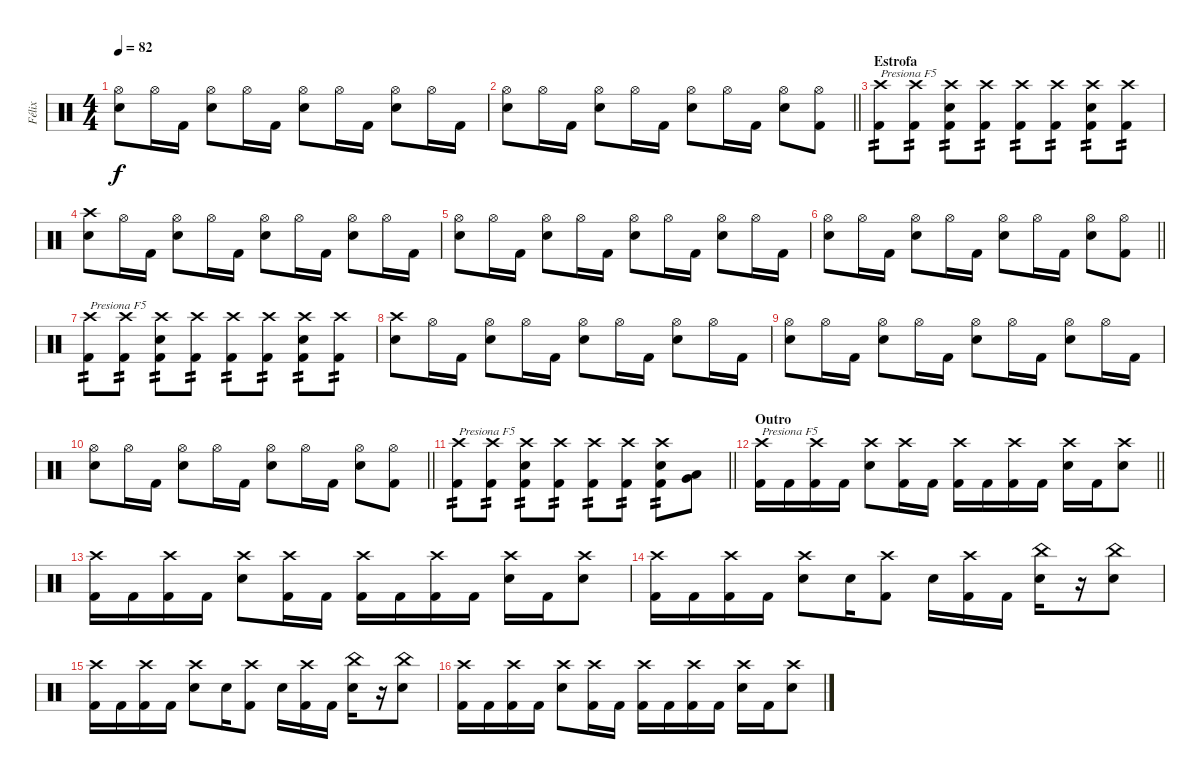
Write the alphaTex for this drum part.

\track ("Félix" "Félix") {instrument percussion}
\staff {score}
\articulation defaults
\ts (4 4)
\tempo 82
\clef neutral
\ks c
("Hi-Hat (open)" "Snare (hit) 2").8{dy f} "Hi-Hat (open)".16 "Kick (hit) 2".16 ("Hi-Hat (open)" "Snare (hit) 2").8 "Hi-Hat (open)".16 "Kick (hit) 2".16 ("Hi-Hat (open)" "Snare (hit) 2").8 "Hi-Hat (open)".16 "Kick (hit) 2".16 ("Hi-Hat (open)" "Snare (hit) 2").8 "Hi-Hat (open)".16 "Kick (hit) 2".16 |
\barLineRight lightlight
("Hi-Hat (open)" "Snare (hit) 2").8 "Hi-Hat (open)".16 "Kick (hit) 2".16 ("Hi-Hat (open)" "Snare (hit) 2").8 "Hi-Hat (open)".16 "Kick (hit) 2".16 ("Hi-Hat (open)" "Snare (hit) 2").8 "Hi-Hat (open)".16 "Kick (hit) 2".16 ("Hi-Hat (open)" "Snare (hit) 2").8 ("Hi-Hat (open)" "Kick (hit) 2").8 |
\section ("" "Estrofa")
("Crash high (hit)" "Kick (hit) 2").8{txt "Presiona F5" tp 2} ("Crash high (hit)" "Kick (hit) 2").8{tp 2} ("Crash high (hit)" "Snare (hit) 2" "Kick (hit) 2").8{tp 2} ("Crash high (hit)" "Kick (hit) 2").8{tp 2} ("Crash high (hit)" "Kick (hit) 2").8{tp 2} ("Crash high (hit)" "Kick (hit) 2").8{tp 2} ("Crash high (hit)" "Snare (hit) 2" "Kick (hit) 2").8{tp 2} ("Crash high (hit)" "Kick (hit) 2").8{tp 2} |
("Crash high (hit)" "Snare (hit) 2").8 "Hi-Hat (open)".16 "Kick (hit) 2".16 ("Hi-Hat (open)" "Snare (hit) 2").8 "Hi-Hat (open)".16 "Kick (hit) 2".16 ("Hi-Hat (open)" "Snare (hit) 2").8 "Hi-Hat (open)".16 "Kick (hit) 2".16 ("Hi-Hat (open)" "Snare (hit) 2").8 "Hi-Hat (open)".16 "Kick (hit) 2".16 |
("Hi-Hat (open)" "Snare (hit) 2").8 "Hi-Hat (open)".16 "Kick (hit) 2".16 ("Hi-Hat (open)" "Snare (hit) 2").8 "Hi-Hat (open)".16 "Kick (hit) 2".16 ("Hi-Hat (open)" "Snare (hit) 2").8 "Hi-Hat (open)".16 "Kick (hit) 2".16 ("Hi-Hat (open)" "Snare (hit) 2").8 "Hi-Hat (open)".16 "Kick (hit) 2".16 |
\barLineRight lightlight
("Hi-Hat (open)" "Snare (hit) 2").8 "Hi-Hat (open)".16 "Kick (hit) 2".16 ("Hi-Hat (open)" "Snare (hit) 2").8 "Hi-Hat (open)".16 "Kick (hit) 2".16 ("Hi-Hat (open)" "Snare (hit) 2").8 "Hi-Hat (open)".16 "Kick (hit) 2".16 ("Hi-Hat (open)" "Snare (hit) 2").8 ("Hi-Hat (open)" "Kick (hit) 2").8 |
("Crash high (hit)" "Kick (hit) 2").8{txt "Presiona F5" tp 2} ("Crash high (hit)" "Kick (hit) 2").8{tp 2} ("Crash high (hit)" "Snare (hit) 2" "Kick (hit) 2").8{tp 2} ("Crash high (hit)" "Kick (hit) 2").8{tp 2} ("Crash high (hit)" "Kick (hit) 2").8{tp 2} ("Crash high (hit)" "Kick (hit) 2").8{tp 2} ("Crash high (hit)" "Snare (hit) 2" "Kick (hit) 2").8{tp 2} ("Crash high (hit)" "Kick (hit) 2").8{tp 2} |
("Crash high (hit)" "Snare (hit) 2").8 "Hi-Hat (open)".16 "Kick (hit) 2".16 ("Hi-Hat (open)" "Snare (hit) 2").8 "Hi-Hat (open)".16 "Kick (hit) 2".16 ("Hi-Hat (open)" "Snare (hit) 2").8 "Hi-Hat (open)".16 "Kick (hit) 2".16 ("Hi-Hat (open)" "Snare (hit) 2").8 "Hi-Hat (open)".16 "Kick (hit) 2".16 |
("Hi-Hat (open)" "Snare (hit) 2").8 "Hi-Hat (open)".16 "Kick (hit) 2".16 ("Hi-Hat (open)" "Snare (hit) 2").8 "Hi-Hat (open)".16 "Kick (hit) 2".16 ("Hi-Hat (open)" "Snare (hit) 2").8 "Hi-Hat (open)".16 "Kick (hit) 2".16 ("Hi-Hat (open)" "Snare (hit) 2").8 "Hi-Hat (open)".16 "Kick (hit) 2".16 |
\barLineRight lightlight
("Hi-Hat (open)" "Snare (hit) 2").8 "Hi-Hat (open)".16 "Kick (hit) 2".16 ("Hi-Hat (open)" "Snare (hit) 2").8 "Hi-Hat (open)".16 "Kick (hit) 2".16 ("Hi-Hat (open)" "Snare (hit) 2").8 "Hi-Hat (open)".16 "Kick (hit) 2".16 ("Hi-Hat (open)" "Snare (hit) 2").8 ("Hi-Hat (open)" "Kick (hit) 2").8 |
\barLineRight lightlight
("Crash high (hit)" "Kick (hit) 2").8{txt "Presiona F5" tp 2} ("Crash high (hit)" "Kick (hit) 2").8{tp 2} ("Crash high (hit)" "Snare (hit) 2" "Kick (hit) 2").8{tp 2} ("Crash high (hit)" "Kick (hit) 2").8{tp 2} ("Crash high (hit)" "Kick (hit) 2").8{tp 2} ("Crash high (hit)" "Kick (hit) 2").8{tp 2} ("Crash high (hit)" "Snare (hit) 2" "Kick (hit) 2").8{tp 2} ("Very Low Tom (hit)" "Low Floor Tom (hit)").8 |
\section ("" "Outro")
\barLineRight lightlight
("Crash high (hit)" "Kick (hit) 2").16{txt "Presiona F5"} "Kick (hit) 2".16 ("Crash high (hit)" "Kick (hit) 2").16 "Kick (hit) 2".16 ("Crash high (hit)" "Snare (hit) 2").8 ("Crash high (hit)" "Kick (hit) 2").16 "Kick (hit) 2".16 ("Crash high (hit)" "Kick (hit) 2").16 "Kick (hit) 2".16 ("Crash high (hit)" "Kick (hit) 2").16 "Kick (hit) 2".16 ("Crash high (hit)" "Snare (hit) 2").16 "Kick (hit) 2".16 ("Crash high (hit)" "Snare (hit) 2").8 |
("Crash high (hit)" "Kick (hit) 2").16 "Kick (hit) 2".16 ("Crash high (hit)" "Kick (hit) 2").16 "Kick (hit) 2".16 ("Crash high (hit)" "Snare (hit) 2").8 ("Crash high (hit)" "Kick (hit) 2").16 "Kick (hit) 2".16 ("Crash high (hit)" "Kick (hit) 2").16 "Kick (hit) 2".16 ("Crash high (hit)" "Kick (hit) 2").16 "Kick (hit) 2".16 ("Crash high (hit)" "Snare (hit) 2").16 "Kick (hit) 2".16 ("Crash high (hit)" "Snare (hit) 2").8 |
("Crash high (hit)" "Kick (hit) 2").16 "Kick (hit) 2".16 ("Crash high (hit)" "Kick (hit) 2").16 "Kick (hit) 2".16 ("Crash high (hit)" "Snare (hit) 2").8 "Snare (hit) 2".16 ("Crash high (hit)" "Kick (hit) 2").8 "Snare (hit) 2".16 ("Crash high (hit)" "Kick (hit) 2").16 "Kick (hit) 2".16 ("China (hit)" "Snare (hit) 2").16 r.16 ("China (hit)" "Snare (hit) 2").8 |
("Crash high (hit)" "Kick (hit) 2").16 "Kick (hit) 2".16 ("Crash high (hit)" "Kick (hit) 2").16 "Kick (hit) 2".16 ("Crash high (hit)" "Snare (hit) 2").8 "Snare (hit) 2".16 ("Crash high (hit)" "Kick (hit) 2").8 "Snare (hit) 2".16 ("Crash high (hit)" "Kick (hit) 2").16 "Kick (hit) 2".16 ("China (hit)" "Snare (hit) 2").16 r.16 ("China (hit)" "Snare (hit) 2").8 |
("Crash high (hit)" "Kick (hit) 2").16 "Kick (hit) 2".16 ("Crash high (hit)" "Kick (hit) 2").16 "Kick (hit) 2".16 ("Crash high (hit)" "Snare (hit) 2").8 ("Crash high (hit)" "Kick (hit) 2").16 "Kick (hit) 2".16 ("Crash high (hit)" "Kick (hit) 2").16 "Kick (hit) 2".16 ("Crash high (hit)" "Kick (hit) 2").16 "Kick (hit) 2".16 ("Crash high (hit)" "Snare (hit) 2").16 "Kick (hit) 2".16 ("Crash high (hit)" "Snare (hit) 2").8
